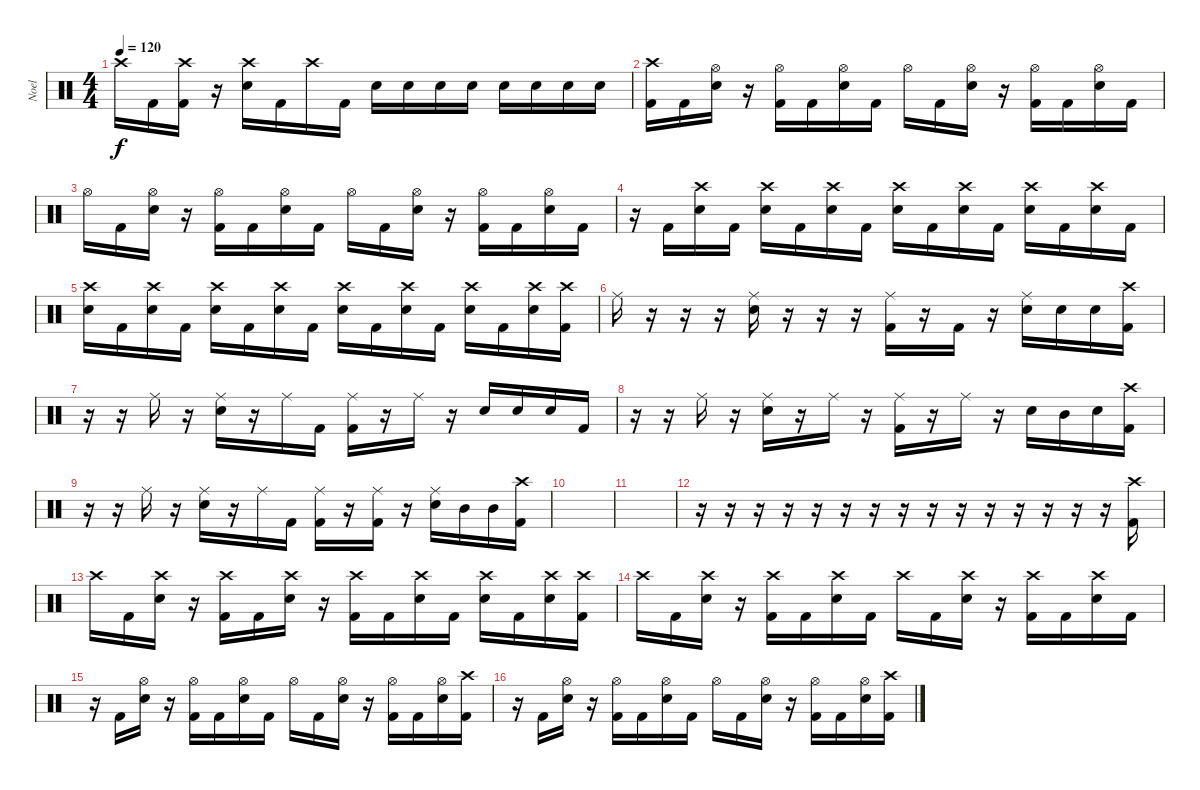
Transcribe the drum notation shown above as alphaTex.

\track ("Noel" "Noel") {instrument percussion}
\staff {score}
\articulation defaults
\ts (4 4)
\tempo 120
\clef neutral
\ks c "Crash high (hit)".16{dy f} "Kick (hit) 2".16
("Crash high (hit)" "Kick (hit) 2").16 r.16 ("Crash high (hit)" "Snare (hit) 2").16 "Kick (hit) 2".16 "Crash high (hit)".16 "Kick (hit) 2".16 "Snare (hit) 2".16 "Snare (hit) 2".16 "Snare (hit) 2".16 "Snare (hit) 2".16 "Snare (hit) 2".16 "Snare (hit) 2".16 "Snare (hit) 2".16 "Snare (hit) 2".16 |
("Crash high (hit)" "Kick (hit) 2").16 "Kick (hit) 2".16 ("Hi-Hat (open)" "Snare (hit) 2").16 r.16 ("Hi-Hat (open)" "Kick (hit) 2").16 "Kick (hit) 2".16 ("Hi-Hat (open)" "Snare (hit) 2").16 "Kick (hit) 2".16 "Hi-Hat (open)".16 "Kick (hit) 2".16 ("Hi-Hat (open)" "Snare (hit) 2").16 r.16 ("Hi-Hat (open)" "Kick (hit) 2").16 "Kick (hit) 2".16 ("Hi-Hat (open)" "Snare (hit) 2").16 "Kick (hit) 2".16 |
"Hi-Hat (open)".16 "Kick (hit) 2".16 ("Hi-Hat (open)" "Snare (hit) 2").16 r.16 ("Hi-Hat (open)" "Kick (hit) 2").16 "Kick (hit) 2".16 ("Hi-Hat (open)" "Snare (hit) 2").16 "Kick (hit) 2".16 "Hi-Hat (open)".16 "Kick (hit) 2".16 ("Hi-Hat (open)" "Snare (hit) 2").16 r.16 ("Hi-Hat (open)" "Kick (hit) 2").16 "Kick (hit) 2".16 ("Hi-Hat (open)" "Snare (hit) 2").16 "Kick (hit) 2".16 |
r.16 "Kick (hit) 2".16 ("Crash high (hit)" "Snare (hit) 2").16 "Kick (hit) 2".16 ("Crash high (hit)" "Snare (hit) 2").16 "Kick (hit) 2".16 ("Crash high (hit)" "Snare (hit) 2").16 "Kick (hit) 2".16 ("Crash high (hit)" "Snare (hit) 2").16 "Kick (hit) 2".16 ("Crash high (hit)" "Snare (hit) 2").16 "Kick (hit) 2".16 ("Crash high (hit)" "Snare (hit) 2").16 "Kick (hit) 2".16 ("Crash high (hit)" "Snare (hit) 2").16 "Kick (hit) 2".16 |
("Crash high (hit)" "Snare (hit) 2").16 "Kick (hit) 2".16 ("Crash high (hit)" "Snare (hit) 2").16 "Kick (hit) 2".16 ("Crash high (hit)" "Snare (hit) 2").16 "Kick (hit) 2".16 ("Crash high (hit)" "Snare (hit) 2").16 "Kick (hit) 2".16 ("Crash high (hit)" "Snare (hit) 2").16 "Kick (hit) 2".16 ("Crash high (hit)" "Snare (hit) 2").16 "Kick (hit) 2".16 ("Crash high (hit)" "Snare (hit) 2").16 "Kick (hit) 2".16 ("Crash high (hit)" "Snare (hit) 2").16 ("Crash high (hit)" "Kick (hit) 2").16 |
"Ride (middle)".16 r.16 r.16 r.16 ("Ride (middle)" "Snare (hit) 2").16 r.16 r.16 r.16 ("Ride (middle)" "Kick (hit) 2").16 r.16 "Kick (hit) 2".16 r.16 ("Ride (middle)" "Snare (hit) 2").16 "Snare (hit) 2".16 "Snare (hit) 2".16 ("Crash high (hit)" "Kick (hit) 2").16 |
r.16 r.16 "Ride (middle)".16 r.16 ("Ride (middle)" "Snare (hit) 2").16 r.16 "Ride (middle)".16 "Kick (hit) 2".16 ("Ride (middle)" "Kick (hit) 2").16 r.16 "Ride (middle)".16 r.16 "Snare (hit) 2".16 "Snare (hit) 2".16 "Snare (hit) 2".16 "Kick (hit) 2".16 |
r.16 r.16 "Ride (middle)".16 r.16 ("Ride (middle)" "Snare (hit) 2").16 r.16 "Ride (middle)".16 r.16 ("Ride (middle)" "Kick (hit) 2").16 r.16 "Ride (middle)".16 r.16 "Snare (hit) 2".16 "Mid Tom (hit)".16 "Snare (hit) 2".16 ("Crash high (hit)" "Kick (hit) 2").16 |
r.16 r.16 "Ride (middle)".16 r.16 ("Ride (middle)" "Snare (hit) 2").16 r.16 "Ride (middle)".16 "Kick (hit) 2".16 ("Ride (middle)" "Kick (hit) 2").16 r.16 ("Ride (middle)" "Kick (hit) 2").16 r.16 ("Ride (middle)" "Snare (hit) 2").16 "Mid Tom (hit)".16 "Mid Tom (hit)".16 ("Crash high (hit)" "Kick (hit) 2").16 |
|
|
r.16 r.16 r.16 r.16 r.16 r.16 r.16 r.16 r.16 r.16 r.16 r.16 r.16 r.16 r.16 ("Crash high (hit)" "Kick (hit) 2").16 |
"Crash high (hit)".16 "Kick (hit) 2".16 ("Crash high (hit)" "Snare (hit) 2").16 r.16 ("Crash high (hit)" "Kick (hit) 2").16 "Kick (hit) 2".16 ("Crash high (hit)" "Snare (hit) 2").16 r.16 ("Crash high (hit)" "Kick (hit) 2").16 "Kick (hit) 2".16 ("Crash high (hit)" "Snare (hit) 2").16 "Kick (hit) 2".16 ("Crash high (hit)" "Snare (hit) 2").16 "Kick (hit) 2".16 ("Crash high (hit)" "Snare (hit) 2").16 ("Crash high (hit)" "Kick (hit) 2").16 |
"Crash high (hit)".16 "Kick (hit) 2".16 ("Crash high (hit)" "Snare (hit) 2").16 r.16 ("Crash high (hit)" "Kick (hit) 2").16 "Kick (hit) 2".16 ("Crash high (hit)" "Snare (hit) 2").16 "Kick (hit) 2".16 "Crash high (hit)".16 "Kick (hit) 2".16 ("Crash high (hit)" "Snare (hit) 2").16 r.16 ("Crash high (hit)" "Kick (hit) 2").16 "Kick (hit) 2".16 ("Crash high (hit)" "Snare (hit) 2").16 "Kick (hit) 2".16 |
r.16 "Kick (hit) 2".16 ("Hi-Hat (open)" "Snare (hit) 2").16 r.16 ("Hi-Hat (open)" "Kick (hit) 2").16 "Kick (hit) 2".16 ("Hi-Hat (open)" "Snare (hit) 2").16 "Kick (hit) 2".16 "Hi-Hat (open)".16 "Kick (hit) 2".16 ("Hi-Hat (open)" "Snare (hit) 2").16 r.16 ("Hi-Hat (open)" "Kick (hit) 2").16 "Kick (hit) 2".16 ("Hi-Hat (open)" "Snare (hit) 2").16 ("Crash high (hit)" "Kick (hit) 2").16 |
r.16 "Kick (hit) 2".16 ("Hi-Hat (open)" "Snare (hit) 2").16 r.16 ("Hi-Hat (open)" "Kick (hit) 2").16 "Kick (hit) 2".16 ("Hi-Hat (open)" "Snare (hit) 2").16 "Kick (hit) 2".16 "Hi-Hat (open)".16 "Kick (hit) 2".16 ("Hi-Hat (open)" "Snare (hit) 2").16 r.16 ("Hi-Hat (open)" "Kick (hit) 2").16 "Kick (hit) 2".16 ("Hi-Hat (open)" "Snare (hit) 2").16 ("Crash high (hit)" "Kick (hit) 2").16
